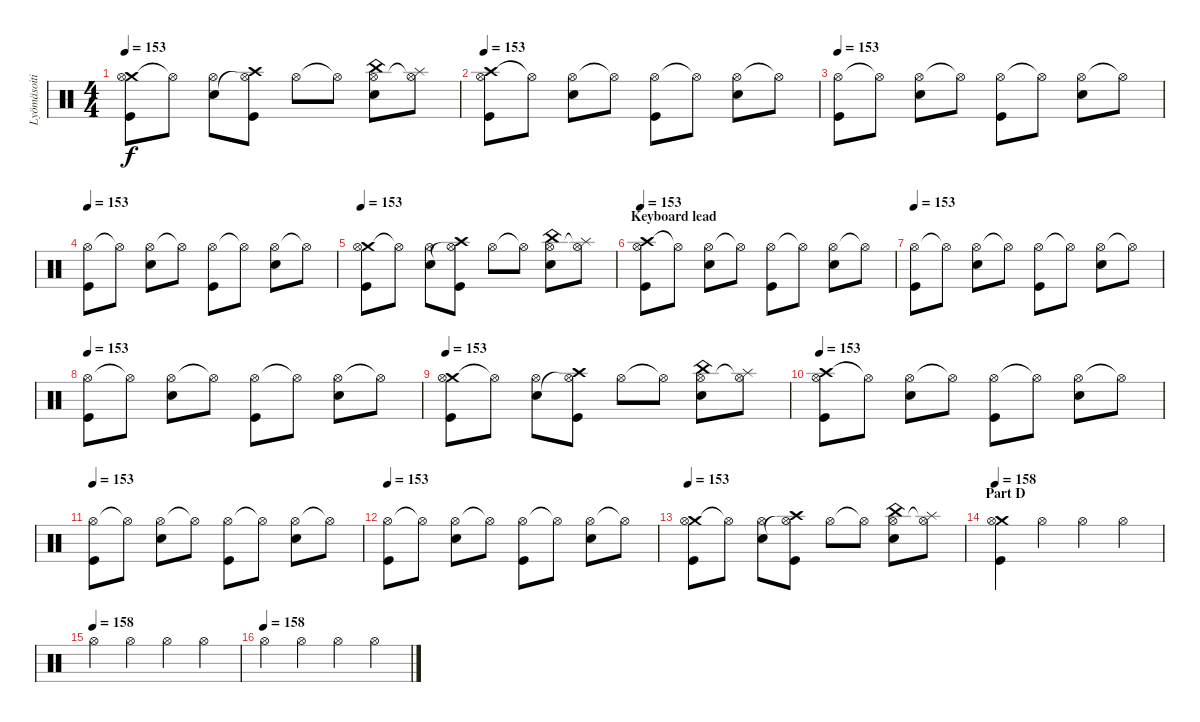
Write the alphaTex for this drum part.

\track ("Lyömäsoitin" "Lyömäsoiti") {instrument percussion}
\staff {score}
\articulation defaults
\ts (4 4)
\tempo 153
\clef neutral
\ks c
("Crash medium (hit)" "Hi-Hat (open)" "Kick (hit)").8{dy f} "Hi-Hat (open)"{t}.8 ("Hi-Hat (open)" "Snare (hit) 2").8 ("Crash high (hit)" "Hi-Hat (open)"{t} "Kick (hit)").8 "Hi-Hat (open)".8 "Hi-Hat (open)"{t}.8 ("China (hit)" "Hi-Hat (open)" "Snare (hit) 2").8 ("Splash (hit)" "Hi-Hat (open)"{t}).8 |
\tempo 153
("Crash high (hit)" "Hi-Hat (open)" "Kick (hit)").8 "Hi-Hat (open)"{t}.8 ("Hi-Hat (open)" "Snare (hit) 2").8 "Hi-Hat (open)"{t}.8 ("Hi-Hat (open)" "Kick (hit)").8 "Hi-Hat (open)"{t}.8 ("Hi-Hat (open)" "Snare (hit) 2").8 "Hi-Hat (open)"{t}.8 |
\tempo 153
("Hi-Hat (open)" "Kick (hit)").8 "Hi-Hat (open)"{t}.8 ("Hi-Hat (open)" "Snare (hit) 2").8 "Hi-Hat (open)"{t}.8 ("Hi-Hat (open)" "Kick (hit)").8 "Hi-Hat (open)"{t}.8 ("Hi-Hat (open)" "Snare (hit) 2").8 "Hi-Hat (open)"{t}.8 |
\tempo 153
("Hi-Hat (open)" "Kick (hit)").8 "Hi-Hat (open)"{t}.8 ("Hi-Hat (open)" "Snare (hit) 2").8 "Hi-Hat (open)"{t}.8 ("Hi-Hat (open)" "Kick (hit)").8 "Hi-Hat (open)"{t}.8 ("Hi-Hat (open)" "Snare (hit) 2").8 "Hi-Hat (open)"{t}.8 |
\tempo 153
("Crash medium (hit)" "Hi-Hat (open)" "Kick (hit)").8 "Hi-Hat (open)"{t}.8 ("Hi-Hat (open)" "Snare (hit) 2").8 ("Crash high (hit)" "Hi-Hat (open)"{t} "Kick (hit)").8 "Hi-Hat (open)".8 "Hi-Hat (open)"{t}.8 ("China (hit)" "Hi-Hat (open)" "Snare (hit) 2").8 ("Splash (hit)" "Hi-Hat (open)"{t}).8 |
\section ("" "Keyboard lead ")
\tempo 153
("Crash high (hit)" "Hi-Hat (open)" "Kick (hit)").8 "Hi-Hat (open)"{t}.8 ("Hi-Hat (open)" "Snare (hit) 2").8 "Hi-Hat (open)"{t}.8 ("Hi-Hat (open)" "Kick (hit)").8 "Hi-Hat (open)"{t}.8 ("Hi-Hat (open)" "Snare (hit) 2").8 "Hi-Hat (open)"{t}.8 |
\tempo 153
("Hi-Hat (open)" "Kick (hit)").8 "Hi-Hat (open)"{t}.8 ("Hi-Hat (open)" "Snare (hit) 2").8 "Hi-Hat (open)"{t}.8 ("Hi-Hat (open)" "Kick (hit)").8 "Hi-Hat (open)"{t}.8 ("Hi-Hat (open)" "Snare (hit) 2").8 "Hi-Hat (open)"{t}.8 |
\tempo 153
("Hi-Hat (open)" "Kick (hit)").8 "Hi-Hat (open)"{t}.8 ("Hi-Hat (open)" "Snare (hit) 2").8 "Hi-Hat (open)"{t}.8 ("Hi-Hat (open)" "Kick (hit)").8 "Hi-Hat (open)"{t}.8 ("Hi-Hat (open)" "Snare (hit) 2").8 "Hi-Hat (open)"{t}.8 |
\tempo 153
("Crash medium (hit)" "Hi-Hat (open)" "Kick (hit)").8 "Hi-Hat (open)"{t}.8 ("Hi-Hat (open)" "Snare (hit) 2").8 ("Crash high (hit)" "Hi-Hat (open)"{t} "Kick (hit)").8 "Hi-Hat (open)".8 "Hi-Hat (open)"{t}.8 ("China (hit)" "Hi-Hat (open)" "Snare (hit) 2").8 ("Splash (hit)" "Hi-Hat (open)"{t}).8 |
\tempo 153
("Crash high (hit)" "Hi-Hat (open)" "Kick (hit)").8 "Hi-Hat (open)"{t}.8 ("Hi-Hat (open)" "Snare (hit) 2").8 "Hi-Hat (open)"{t}.8 ("Hi-Hat (open)" "Kick (hit)").8 "Hi-Hat (open)"{t}.8 ("Hi-Hat (open)" "Snare (hit) 2").8 "Hi-Hat (open)"{t}.8 |
\tempo 153
("Hi-Hat (open)" "Kick (hit)").8 "Hi-Hat (open)"{t}.8 ("Hi-Hat (open)" "Snare (hit) 2").8 "Hi-Hat (open)"{t}.8 ("Hi-Hat (open)" "Kick (hit)").8 "Hi-Hat (open)"{t}.8 ("Hi-Hat (open)" "Snare (hit) 2").8 "Hi-Hat (open)"{t}.8 |
\tempo 153
("Hi-Hat (open)" "Kick (hit)").8 "Hi-Hat (open)"{t}.8 ("Hi-Hat (open)" "Snare (hit) 2").8 "Hi-Hat (open)"{t}.8 ("Hi-Hat (open)" "Kick (hit)").8 "Hi-Hat (open)"{t}.8 ("Hi-Hat (open)" "Snare (hit) 2").8 "Hi-Hat (open)"{t}.8 |
\tempo 153
("Crash medium (hit)" "Hi-Hat (open)" "Kick (hit)").8 "Hi-Hat (open)"{t}.8 ("Hi-Hat (open)" "Snare (hit) 2").8 ("Crash high (hit)" "Hi-Hat (open)"{t} "Kick (hit)").8 "Hi-Hat (open)".8 "Hi-Hat (open)"{t}.8 ("China (hit)" "Hi-Hat (open)" "Snare (hit) 2").8 ("Splash (hit)" "Hi-Hat (open)"{t}).8 |
\section ("" "Part D")
\tempo 158
("Crash medium (hit)" "Hi-Hat (open)" "Kick (hit)").4 "Hi-Hat (open)".4 "Hi-Hat (open)".4 "Hi-Hat (open)".4 |
\tempo (158)
"Hi-Hat (open)".4 "Hi-Hat (open)".4 "Hi-Hat (open)".4 "Hi-Hat (open)".4 |
\tempo (158)
"Hi-Hat (open)".4 "Hi-Hat (open)".4 "Hi-Hat (open)".4 "Hi-Hat (open)".4
